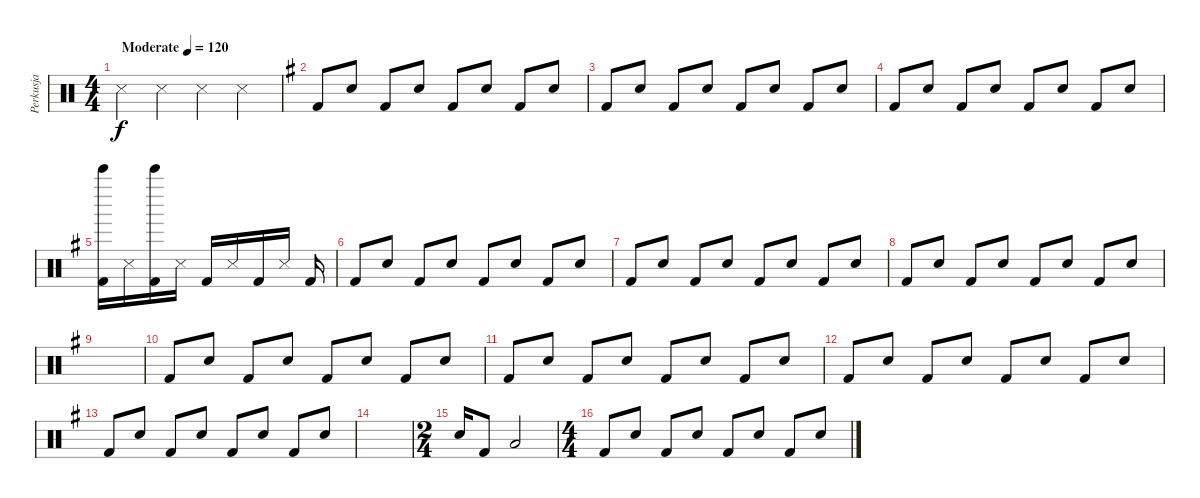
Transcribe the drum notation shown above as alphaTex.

\track ("Perkusja" "Perkusja") {instrument percussion}
\staff {score}
\articulation defaults
\ts (4 4)
\tempo (120 "Moderate")
\clef neutral
\ks c "Snare (side stick) 3".4{dy f} "Snare (side stick) 3".4 "Snare (side stick) 3".4 "Snare (side stick) 3".4
|
\ks eminor "Kick (hit) 2".8 "Electric Snare (hit)".8 "Kick (hit) 2".8 "Electric Snare (hit)".8 "Kick (hit) 2".8 "Electric Snare (hit)".8 "Kick (hit) 2".8 "Electric Snare (hit)".8
|
"Kick (hit) 2".8 "Electric Snare (hit)".8 "Kick (hit) 2".8 "Electric Snare (hit)".8 "Kick (hit) 2".8 "Electric Snare (hit)".8 "Kick (hit) 2".8 "Electric Snare (hit)".8 |
"Kick (hit) 2".8 "Electric Snare (hit)".8 "Kick (hit) 2".8 "Electric Snare (hit)".8 "Kick (hit) 2".8 "Electric Snare (hit)".8 "Kick (hit) 2".8 "Electric Snare (hit)".8 |
("Kick (hit) 2" "Bell Tree (hit)").16 "Snare (side stick) 3".16 ("Kick (hit) 2" "Bell Tree (hit)").16 "Snare (side stick) 3".16 "Kick (hit) 2".16 "Snare (side stick) 3".16 "Kick (hit) 2".16 "Snare (side stick) 3".16 "Kick (hit) 2".16 |
"Kick (hit) 2".8 "Electric Snare (hit)".8 "Kick (hit) 2".8 "Electric Snare (hit)".8 "Kick (hit) 2".8 "Electric Snare (hit)".8 "Kick (hit) 2".8 "Electric Snare (hit)".8 |
"Kick (hit) 2".8 "Electric Snare (hit)".8 "Kick (hit) 2".8 "Electric Snare (hit)".8 "Kick (hit) 2".8 "Electric Snare (hit)".8 "Kick (hit) 2".8 "Electric Snare (hit)".8 |
"Kick (hit) 2".8 "Electric Snare (hit)".8 "Kick (hit) 2".8 "Electric Snare (hit)".8 "Kick (hit) 2".8 "Electric Snare (hit)".8 "Kick (hit) 2".8 "Electric Snare (hit)".8 |
|
"Kick (hit) 2".8 "Electric Snare (hit)".8 "Kick (hit) 2".8 "Electric Snare (hit)".8 "Kick (hit) 2".8 "Electric Snare (hit)".8 "Kick (hit) 2".8 "Electric Snare (hit)".8 |
"Kick (hit) 2".8 "Electric Snare (hit)".8 "Kick (hit) 2".8 "Electric Snare (hit)".8 "Kick (hit) 2".8 "Electric Snare (hit)".8 "Kick (hit) 2".8 "Electric Snare (hit)".8 |
"Kick (hit) 2".8 "Electric Snare (hit)".8 "Kick (hit) 2".8 "Electric Snare (hit)".8 "Kick (hit) 2".8 "Electric Snare (hit)".8 "Kick (hit) 2".8 "Electric Snare (hit)".8 |
"Kick (hit) 2".8 "Electric Snare (hit)".8 "Kick (hit) 2".8 "Electric Snare (hit)".8 "Kick (hit) 2".8 "Electric Snare (hit)".8 "Kick (hit) 2".8 "Electric Snare (hit)".8 |
|
\ts (2 4)
"Snare (hit) 2".16 "Kick (hit) 2".8 "Low Floor Tom (hit)".2 |
\ts (4 4)
"Kick (hit) 2".8 "Electric Snare (hit)".8 "Kick (hit) 2".8 "Electric Snare (hit)".8 "Kick (hit) 2".8 "Electric Snare (hit)".8 "Kick (hit) 2".8 "Electric Snare (hit)".8
